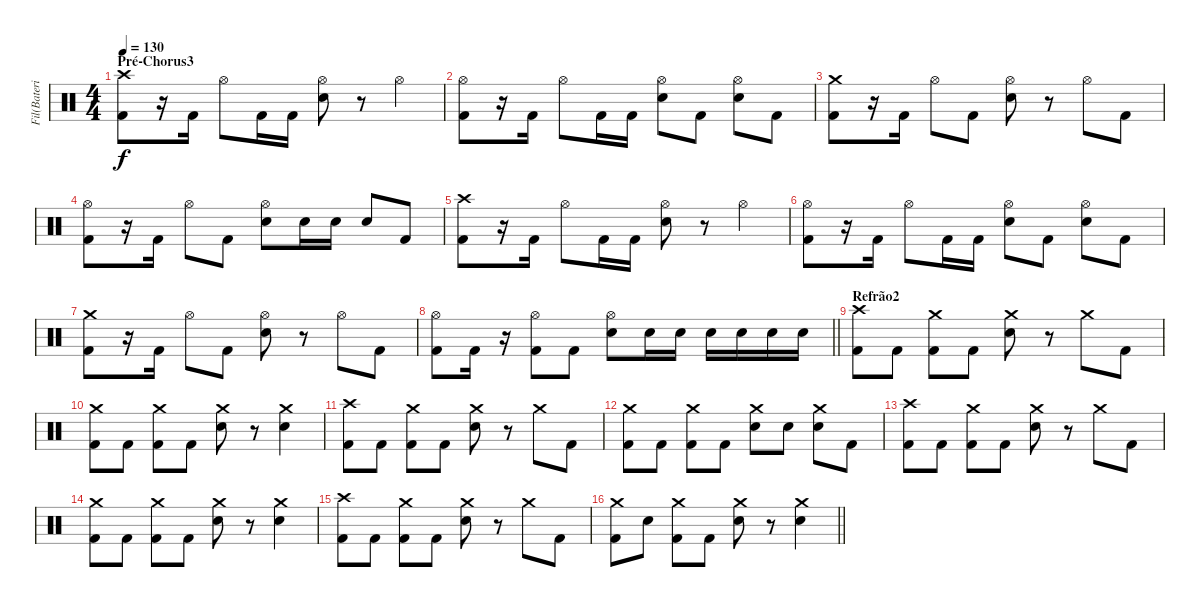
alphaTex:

\track ("Fil(Bateria)" "Fil(Bateri") {instrument percussion}
\staff {score}
\articulation defaults
\ts (4 4)
\section ("" "Pré-Chorus3")
\tempo 130
\clef neutral
\ks c
("Crash high (hit)" "Kick (hit) 2").8{dy f} r.16 "Kick (hit) 2".16 "Hi-Hat (open)".8 "Kick (hit) 2".16 "Kick (hit) 2".16 ("Hi-Hat (open)" "Electric Snare (hit)").8 r.8 "Hi-Hat (open)".4 |
("Hi-Hat (open)" "Kick (hit) 2").8 r.16 "Kick (hit) 2".16 "Hi-Hat (open)".8 "Kick (hit) 2".16 "Kick (hit) 2".16 ("Hi-Hat (open)" "Electric Snare (hit)").8 "Kick (hit) 2".8 ("Hi-Hat (open)" "Electric Snare (hit)").8 "Kick (hit) 2".8 |
("Crash medium (hit)" "Kick (hit) 2").8 r.16 "Kick (hit) 2".16 "Hi-Hat (open)".8 "Kick (hit) 2".8 ("Hi-Hat (open)" "Electric Snare (hit)").8 r.8 "Hi-Hat (open)".8 "Kick (hit) 2".8 |
("Hi-Hat (open)" "Kick (hit) 2").8 r.16 "Kick (hit) 2".16 "Hi-Hat (open)".8 "Kick (hit) 2".8 ("Hi-Hat (open)" "Electric Snare (hit)").8 "Electric Snare (hit)".16 "Electric Snare (hit)".16 "Electric Snare (hit)".8 "Kick (hit) 2".8 |
("Crash high (hit)" "Kick (hit) 2").8 r.16 "Kick (hit) 2".16 "Hi-Hat (open)".8 "Kick (hit) 2".16 "Kick (hit) 2".16 ("Hi-Hat (open)" "Electric Snare (hit)").8 r.8 "Hi-Hat (open)".4 |
("Hi-Hat (open)" "Kick (hit) 2").8 r.16 "Kick (hit) 2".16 "Hi-Hat (open)".8 "Kick (hit) 2".16 "Kick (hit) 2".16 ("Hi-Hat (open)" "Electric Snare (hit)").8 "Kick (hit) 2".8 ("Hi-Hat (open)" "Electric Snare (hit)").8 "Kick (hit) 2".8 |
("Crash medium (hit)" "Kick (hit) 2").8 r.16 "Kick (hit) 2".16 "Hi-Hat (open)".8 "Kick (hit) 2".8 ("Hi-Hat (open)" "Electric Snare (hit)").8 r.8 "Hi-Hat (open)".8 "Kick (hit) 2".8 |
\barLineRight lightlight
("Hi-Hat (open)" "Kick (hit) 2").8 "Kick (hit) 2".16 r.16 ("Hi-Hat (open)" "Kick (hit) 2").8 "Kick (hit) 2".8 ("Hi-Hat (open)" "Electric Snare (hit)").8 "Electric Snare (hit)".16 "Electric Snare (hit)".16 "Electric Snare (hit)".16 "Electric Snare (hit)".16 "Electric Snare (hit)".16 "Electric Snare (hit)".16 |
\section ("" "Refrão2")
("Crash high (hit)" "Kick (hit) 2").8 "Kick (hit) 2".8 ("Crash medium (hit)" "Kick (hit) 2").8 "Kick (hit) 2".8 ("Crash medium (hit)" "Electric Snare (hit)").8 r.8 "Crash medium (hit)".8 "Kick (hit) 2".8 |
("Crash medium (hit)" "Kick (hit) 2").8 "Kick (hit) 2".8 ("Crash medium (hit)" "Kick (hit) 2").8 "Kick (hit) 2".8 ("Crash medium (hit)" "Electric Snare (hit)").8 r.8 ("Crash medium (hit)" "Electric Snare (hit)").4 |
("Crash high (hit)" "Kick (hit) 2").8 "Kick (hit) 2".8 ("Crash medium (hit)" "Kick (hit) 2").8 "Kick (hit) 2".8 ("Crash medium (hit)" "Electric Snare (hit)").8 r.8 "Crash medium (hit)".8 "Kick (hit) 2".8 |
("Crash medium (hit)" "Kick (hit) 2").8 "Kick (hit) 2".8 ("Crash medium (hit)" "Kick (hit) 2").8 "Kick (hit) 2".8 ("Crash medium (hit)" "Electric Snare (hit)").8 "Electric Snare (hit)".8 ("Crash medium (hit)" "Electric Snare (hit)").8 "Kick (hit) 2".8 |
("Crash high (hit)" "Kick (hit) 2").8 "Kick (hit) 2".8 ("Crash medium (hit)" "Kick (hit) 2").8 "Kick (hit) 2".8 ("Crash medium (hit)" "Electric Snare (hit)").8 r.8 "Crash medium (hit)".8 "Kick (hit) 2".8 |
("Crash medium (hit)" "Kick (hit) 2").8 "Kick (hit) 2".8 ("Crash medium (hit)" "Kick (hit) 2").8 "Kick (hit) 2".8 ("Crash medium (hit)" "Electric Snare (hit)").8 r.8 ("Crash medium (hit)" "Electric Snare (hit)").4 |
("Crash high (hit)" "Kick (hit) 2").8 "Kick (hit) 2".8 ("Crash medium (hit)" "Kick (hit) 2").8 "Kick (hit) 2".8 ("Crash medium (hit)" "Electric Snare (hit)").8 r.8 "Crash medium (hit)".8 "Kick (hit) 2".8 |
\barLineRight lightlight
("Crash medium (hit)" "Kick (hit) 2").8 "Electric Snare (hit)".8 ("Crash medium (hit)" "Kick (hit) 2").8 "Kick (hit) 2".8 ("Crash medium (hit)" "Electric Snare (hit)").8 r.8 ("Crash medium (hit)" "Electric Snare (hit)").4
